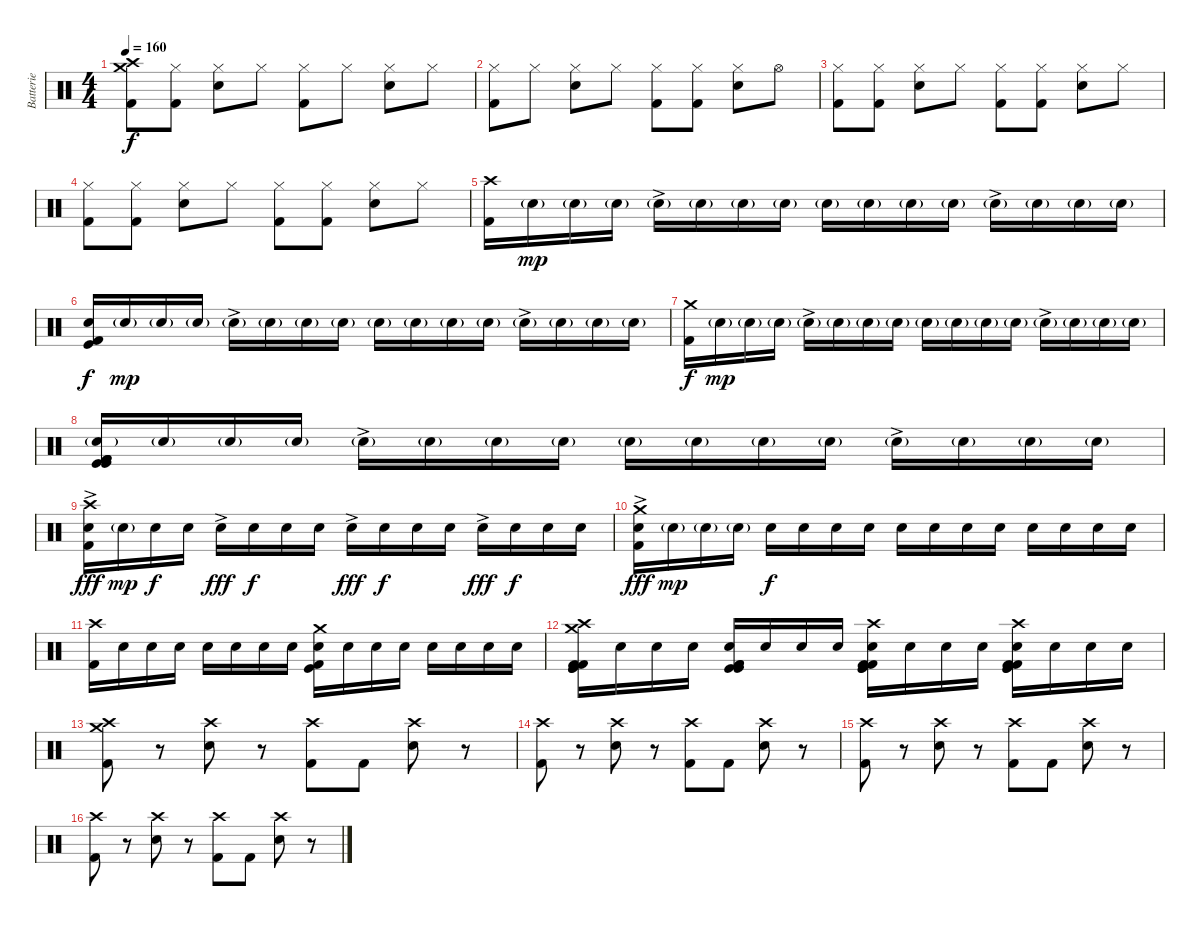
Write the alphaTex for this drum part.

\track ("Batterie" "Batterie") {instrument percussion}
\staff {score}
\articulation defaults
\ts (4 4)
\tempo 160
\clef neutral
\ks c
("Crash high (hit)" "Crash medium (hit)" "Kick (hit) 2").8{dy f} ("Hi-Hat (closed)" "Kick (hit) 2").8 ("Hi-Hat (closed)" "Snare (hit) 2").8 "Hi-Hat (closed)".8 ("Hi-Hat (closed)" "Kick (hit) 2").8 "Hi-Hat (closed)".8 ("Hi-Hat (closed)" "Snare (hit) 2").8 "Hi-Hat (closed)".8 |
("Hi-Hat (closed)" "Kick (hit) 2").8 "Hi-Hat (closed)".8 ("Hi-Hat (closed)" "Snare (hit) 2").8 "Hi-Hat (closed)".8 ("Hi-Hat (closed)" "Kick (hit) 2").8 ("Hi-Hat (closed)" "Kick (hit) 2").8 ("Hi-Hat (closed)" "Snare (hit) 2").8 "Hi-Hat (open)".8 |
("Hi-Hat (closed)" "Kick (hit) 2").8 ("Hi-Hat (closed)" "Kick (hit) 2").8 ("Hi-Hat (closed)" "Snare (hit) 2").8 "Hi-Hat (closed)".8 ("Hi-Hat (closed)" "Kick (hit) 2").8 ("Hi-Hat (closed)" "Kick (hit) 2").8 ("Hi-Hat (closed)" "Snare (hit) 2").8 "Hi-Hat (closed)".8 |
("Hi-Hat (closed)" "Kick (hit) 2").8 ("Hi-Hat (closed)" "Kick (hit) 2").8 ("Hi-Hat (closed)" "Snare (hit) 2").8 "Hi-Hat (closed)".8 ("Hi-Hat (closed)" "Kick (hit) 2").8 ("Hi-Hat (closed)" "Kick (hit) 2").8 ("Hi-Hat (closed)" "Snare (hit) 2").8 "Hi-Hat (closed)".8 |
("Crash high (hit)" "Kick (hit) 2").16 "Snare (hit) 2"{g}.16{dy mp} "Snare (hit) 2"{g}.16 "Snare (hit) 2"{g}.16 "Snare (hit) 2"{g ac}.16 "Snare (hit) 2"{g}.16 "Snare (hit) 2"{g}.16 "Snare (hit) 2"{g}.16 "Snare (hit) 2"{g}.16 "Snare (hit) 2"{g}.16 "Snare (hit) 2"{g}.16 "Snare (hit) 2"{g}.16 "Snare (hit) 2"{g ac}.16 "Snare (hit) 2"{g}.16 "Snare (hit) 2"{g}.16 "Snare (hit) 2"{g}.16 |
("Snare (hit) 2" "Kick (hit)" "Kick (hit) 2").16{dy f} "Snare (hit) 2"{g}.16{dy mp} "Snare (hit) 2"{g}.16 "Snare (hit) 2"{g}.16 "Snare (hit) 2"{g ac}.16 "Snare (hit) 2"{g}.16 "Snare (hit) 2"{g}.16 "Snare (hit) 2"{g}.16 "Snare (hit) 2"{g}.16 "Snare (hit) 2"{g}.16 "Snare (hit) 2"{g}.16 "Snare (hit) 2"{g}.16 "Snare (hit) 2"{g ac}.16 "Snare (hit) 2"{g}.16 "Snare (hit) 2"{g}.16 "Snare (hit) 2"{g}.16 |
("Crash medium (hit)" "Kick (hit) 2").16{dy f} "Snare (hit) 2"{g}.16{dy mp} "Snare (hit) 2"{g}.16 "Snare (hit) 2"{g}.16 "Snare (hit) 2"{g ac}.16 "Snare (hit) 2"{g}.16 "Snare (hit) 2"{g}.16 "Snare (hit) 2"{g}.16 "Snare (hit) 2"{g}.16 "Snare (hit) 2"{g}.16 "Snare (hit) 2"{g}.16 "Snare (hit) 2"{g}.16 "Snare (hit) 2"{g ac}.16 "Snare (hit) 2"{g}.16 "Snare (hit) 2"{g}.16 "Snare (hit) 2"{g}.16 |
("Kick (hit) 2" "Kick (hit)" "Kick (hit) 2" "Snare (hit) 2"{g} "Kick (hit)" "Kick (hit) 2").16 "Snare (hit) 2"{g}.16 "Snare (hit) 2"{g}.16 "Snare (hit) 2"{g}.16 "Snare (hit) 2"{g ac}.16 "Snare (hit) 2"{g}.16 "Snare (hit) 2"{g}.16 "Snare (hit) 2"{g}.16 "Snare (hit) 2"{g}.16 "Snare (hit) 2"{g}.16 "Snare (hit) 2"{g}.16 "Snare (hit) 2"{g}.16 "Snare (hit) 2"{g ac}.16 "Snare (hit) 2"{g}.16 "Snare (hit) 2"{g}.16 "Snare (hit) 2"{g}.16 |
("Crash high (hit)" "Snare (hit) 2"{ac} "Kick (hit) 2").16{dy fff} "Snare (hit) 2"{g}.16{dy mp} "Snare (hit) 2".16{dy f} "Snare (hit) 2".16 "Snare (hit) 2"{ac}.16{dy fff} "Snare (hit) 2".16{dy f} "Snare (hit) 2".16 "Snare (hit) 2".16 "Snare (hit) 2"{ac}.16{dy fff} "Snare (hit) 2".16{dy f} "Snare (hit) 2".16 "Snare (hit) 2".16 "Snare (hit) 2"{ac}.16{dy fff} "Snare (hit) 2".16{dy f} "Snare (hit) 2".16 "Snare (hit) 2".16 |
("Crash medium (hit)" "Snare (hit) 2"{ac} "Kick (hit) 2").16{dy fff} "Snare (hit) 2"{g}.16{dy mp} "Snare (hit) 2"{g}.16 "Snare (hit) 2"{g}.16 "Snare (hit) 2".16{dy f} "Snare (hit) 2".16 "Snare (hit) 2".16 "Snare (hit) 2".16 "Snare (hit) 2".16 "Snare (hit) 2".16 "Snare (hit) 2".16 "Snare (hit) 2".16 "Snare (hit) 2".16 "Snare (hit) 2".16 "Snare (hit) 2".16 "Snare (hit) 2".16 |
("Crash high (hit)" "Kick (hit) 2").16 "Snare (hit) 2".16 "Snare (hit) 2".16 "Snare (hit) 2".16 "Snare (hit) 2".16 "Snare (hit) 2".16 "Snare (hit) 2".16 "Snare (hit) 2".16 ("Crash medium (hit)" "Snare (hit) 2" "Kick (hit)" "Kick (hit) 2").16 "Snare (hit) 2".16 "Snare (hit) 2".16 "Snare (hit) 2".16 "Snare (hit) 2".16 "Snare (hit) 2".16 "Snare (hit) 2".16 "Snare (hit) 2".16 |
("Crash high (hit)" "Crash medium (hit)" "Kick (hit)" "Kick (hit) 2" "Kick (hit)" "Kick (hit) 2").16 "Snare (hit) 2".16 "Snare (hit) 2".16 "Snare (hit) 2".16 ("Kick (hit)" "Kick (hit) 2" "Snare (hit) 2" "Kick (hit)" "Kick (hit) 2").16 "Snare (hit) 2".16 "Snare (hit) 2".16 "Snare (hit) 2".16 ("Crash high (hit)" "Kick (hit)" "Kick (hit) 2" "Snare (hit) 2" "Kick (hit)" "Kick (hit) 2").16 "Snare (hit) 2".16 "Snare (hit) 2".16 "Snare (hit) 2".16 ("Crash high (hit)" "Kick (hit)" "Kick (hit) 2" "Snare (hit) 2" "Kick (hit)" "Kick (hit) 2").16 "Snare (hit) 2".16 "Snare (hit) 2".16 "Snare (hit) 2".16 |
("Crash high (hit)" "Crash medium (hit)" "Kick (hit) 2").8 r.8 ("Crash high (hit)" "Snare (hit) 2").8 r.8 ("Crash high (hit)" "Kick (hit) 2").8 "Kick (hit) 2".8 ("Crash high (hit)" "Snare (hit) 2").8 r.8 |
("Crash high (hit)" "Kick (hit) 2").8 r.8 ("Crash high (hit)" "Snare (hit) 2").8 r.8 ("Crash high (hit)" "Kick (hit) 2").8 "Kick (hit) 2".8 ("Crash high (hit)" "Snare (hit) 2").8 r.8 |
("Crash high (hit)" "Kick (hit) 2").8 r.8 ("Crash high (hit)" "Snare (hit) 2").8 r.8 ("Crash high (hit)" "Kick (hit) 2").8 "Kick (hit) 2".8 ("Crash high (hit)" "Snare (hit) 2").8 r.8 |
("Crash high (hit)" "Kick (hit) 2").8 r.8 ("Crash high (hit)" "Snare (hit) 2").8 r.8 ("Crash high (hit)" "Kick (hit) 2").8 "Kick (hit) 2".8 ("Crash high (hit)" "Snare (hit) 2").8 r.8
